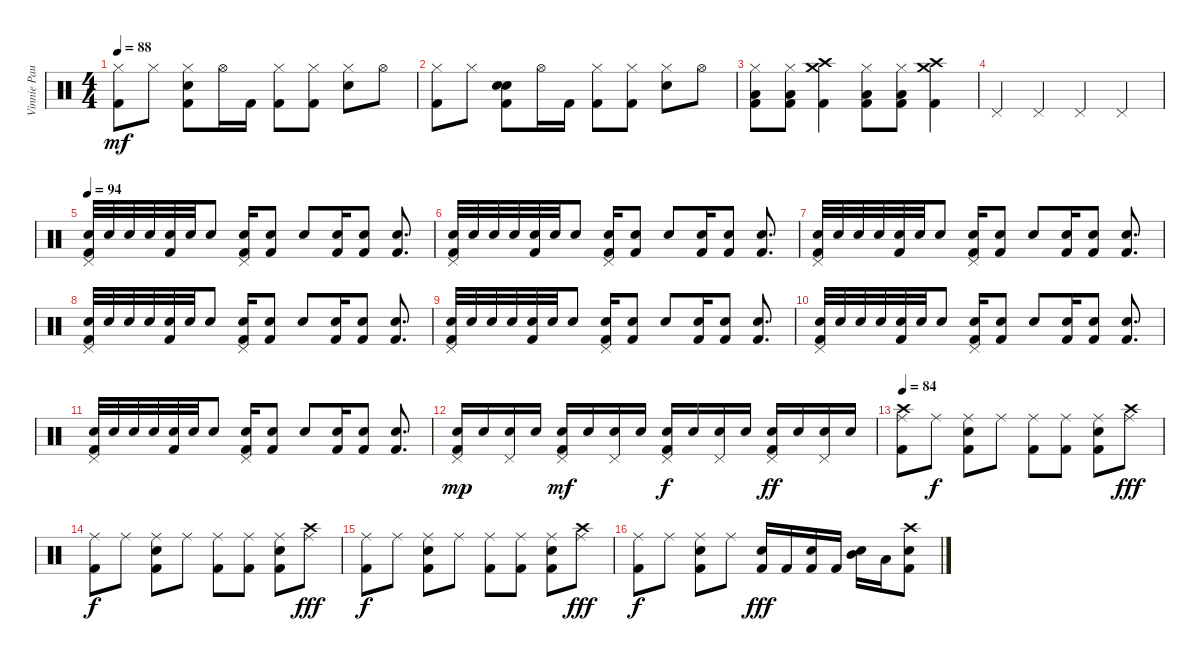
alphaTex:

\track ("Vinnie Paul" "Vinnie Pau") {instrument percussion}
\staff {score}
\articulation defaults
\ts (4 4)
\tempo 88
\clef neutral
\ks c
("Hi-Hat (closed)" "Kick (hit) 2").8{dy mf} "Hi-Hat (closed)".8 ("Hi-Hat (closed)" "Snare (hit) 2" "Kick (hit) 2").8 "Hi-Hat (open)".16 "Kick (hit) 2".16 ("Hi-Hat (closed)" "Kick (hit) 2").8 ("Hi-Hat (closed)" "Kick (hit) 2").8 ("Hi-Hat (closed)" "Snare (hit) 2").8 "Hi-Hat (open)".8 |
("Hi-Hat (closed)" "Kick (hit) 2").8 "Hi-Hat (closed)".8 ("Snare (hit)" "Snare (hit) 2" "Kick (hit) 2").8 "Hi-Hat (open)".16 "Kick (hit) 2".16 ("Hi-Hat (closed)" "Kick (hit) 2").8 ("Hi-Hat (closed)" "Kick (hit) 2").8 ("Hi-Hat (closed)" "Snare (hit) 2").8 "Hi-Hat (open)".8 |
("Hi-Hat (closed)" "Low Floor Tom (hit)" "Kick (hit) 2").8 ("Hi-Hat (closed)" "Low Floor Tom (hit)" "Kick (hit) 2").8 ("Crash high (hit)" "Crash medium (hit)" "Kick (hit) 2").4 ("Hi-Hat (closed)" "Low Floor Tom (hit)" "Kick (hit) 2").8 ("Hi-Hat (closed)" "Low Floor Tom (hit)" "Kick (hit) 2").8 ("Crash high (hit)" "Crash medium (hit)" "Kick (hit) 2").4 |
"Pedal Hi-Hat (hit)".4 "Pedal Hi-Hat (hit)".4 "Pedal Hi-Hat (hit)".4 "Pedal Hi-Hat (hit)".4 |
\tempo 94
("Pedal Hi-Hat (hit)" "Snare (hit) 2" "Kick (hit) 2").32 "Snare (hit) 2".32 "Snare (hit) 2".32 "Snare (hit) 2".32 ("Snare (hit) 2" "Kick (hit) 2").32 "Snare (hit) 2".32 "Snare (hit) 2".8 ("Pedal Hi-Hat (hit)" "Snare (hit) 2" "Kick (hit) 2").16 ("Snare (hit) 2" "Kick (hit) 2").8 "Snare (hit) 2".8 ("Snare (hit) 2" "Kick (hit) 2").16 ("Snare (hit) 2" "Kick (hit) 2").8 ("Snare (hit) 2" "Kick (hit) 2").8{d} |
("Pedal Hi-Hat (hit)" "Snare (hit) 2" "Kick (hit) 2").32 "Snare (hit) 2".32 "Snare (hit) 2".32 "Snare (hit) 2".32 ("Snare (hit) 2" "Kick (hit) 2").32 "Snare (hit) 2".32 "Snare (hit) 2".8 ("Pedal Hi-Hat (hit)" "Snare (hit) 2" "Kick (hit) 2").16 ("Snare (hit) 2" "Kick (hit) 2").8 "Snare (hit) 2".8 ("Snare (hit) 2" "Kick (hit) 2").16 ("Snare (hit) 2" "Kick (hit) 2").8 ("Snare (hit) 2" "Kick (hit) 2").8{d} |
("Pedal Hi-Hat (hit)" "Snare (hit) 2" "Kick (hit) 2").32 "Snare (hit) 2".32 "Snare (hit) 2".32 "Snare (hit) 2".32 ("Snare (hit) 2" "Kick (hit) 2").32 "Snare (hit) 2".32 "Snare (hit) 2".8 ("Pedal Hi-Hat (hit)" "Snare (hit) 2" "Kick (hit) 2").16 ("Snare (hit) 2" "Kick (hit) 2").8 "Snare (hit) 2".8 ("Snare (hit) 2" "Kick (hit) 2").16 ("Snare (hit) 2" "Kick (hit) 2").8 ("Snare (hit) 2" "Kick (hit) 2").8{d} |
("Pedal Hi-Hat (hit)" "Snare (hit) 2" "Kick (hit) 2").32 "Snare (hit) 2".32 "Snare (hit) 2".32 "Snare (hit) 2".32 ("Snare (hit) 2" "Kick (hit) 2").32 "Snare (hit) 2".32 "Snare (hit) 2".8 ("Pedal Hi-Hat (hit)" "Snare (hit) 2" "Kick (hit) 2").16 ("Snare (hit) 2" "Kick (hit) 2").8 "Snare (hit) 2".8 ("Snare (hit) 2" "Kick (hit) 2").16 ("Snare (hit) 2" "Kick (hit) 2").8 ("Snare (hit) 2" "Kick (hit) 2").8{d} |
("Pedal Hi-Hat (hit)" "Snare (hit) 2" "Kick (hit) 2").32 "Snare (hit) 2".32 "Snare (hit) 2".32 "Snare (hit) 2".32 ("Snare (hit) 2" "Kick (hit) 2").32 "Snare (hit) 2".32 "Snare (hit) 2".8 ("Pedal Hi-Hat (hit)" "Snare (hit) 2" "Kick (hit) 2").16 ("Snare (hit) 2" "Kick (hit) 2").8 "Snare (hit) 2".8 ("Snare (hit) 2" "Kick (hit) 2").16 ("Snare (hit) 2" "Kick (hit) 2").8 ("Snare (hit) 2" "Kick (hit) 2").8{d} |
("Pedal Hi-Hat (hit)" "Snare (hit) 2" "Kick (hit) 2").32 "Snare (hit) 2".32 "Snare (hit) 2".32 "Snare (hit) 2".32 ("Snare (hit) 2" "Kick (hit) 2").32 "Snare (hit) 2".32 "Snare (hit) 2".8 ("Pedal Hi-Hat (hit)" "Snare (hit) 2" "Kick (hit) 2").16 ("Snare (hit) 2" "Kick (hit) 2").8 "Snare (hit) 2".8 ("Snare (hit) 2" "Kick (hit) 2").16 ("Snare (hit) 2" "Kick (hit) 2").8 ("Snare (hit) 2" "Kick (hit) 2").8{d} |
("Pedal Hi-Hat (hit)" "Snare (hit) 2" "Kick (hit) 2").32 "Snare (hit) 2".32 "Snare (hit) 2".32 "Snare (hit) 2".32 ("Snare (hit) 2" "Kick (hit) 2").32 "Snare (hit) 2".32 "Snare (hit) 2".8 ("Pedal Hi-Hat (hit)" "Snare (hit) 2" "Kick (hit) 2").16 ("Snare (hit) 2" "Kick (hit) 2").8 "Snare (hit) 2".8 ("Snare (hit) 2" "Kick (hit) 2").16 ("Snare (hit) 2" "Kick (hit) 2").8 ("Snare (hit) 2" "Kick (hit) 2").8{d} |
("Pedal Hi-Hat (hit)" "Snare (hit) 2" "Kick (hit) 2").16{dy mp} "Snare (hit) 2".16 ("Pedal Hi-Hat (hit)" "Snare (hit) 2").16 "Snare (hit) 2".16 ("Pedal Hi-Hat (hit)" "Snare (hit) 2" "Kick (hit) 2").16{dy mf} "Snare (hit) 2".16 ("Pedal Hi-Hat (hit)" "Snare (hit) 2").16 "Snare (hit) 2".16 ("Pedal Hi-Hat (hit)" "Snare (hit) 2" "Kick (hit) 2").16{dy f} "Snare (hit) 2".16 ("Pedal Hi-Hat (hit)" "Snare (hit) 2").16 "Snare (hit) 2".16 ("Pedal Hi-Hat (hit)" "Snare (hit) 2" "Kick (hit) 2").16{dy ff} "Snare (hit) 2".16 ("Pedal Hi-Hat (hit)" "Snare (hit) 2").16 "Snare (hit) 2".16 |
\tempo 84
("Crash high (hit)" "Ride (middle)" "Kick (hit) 2").8 "Ride (middle)".8{dy f} ("Ride (middle)" "Snare (hit) 2" "Kick (hit) 2").8 "Ride (middle)".8 ("Ride (middle)" "Kick (hit) 2").8 ("Ride (middle)" "Kick (hit) 2").8 ("Ride (middle)" "Snare (hit) 2" "Kick (hit) 2").8 ("Crash high (hit)" "Ride (middle)").8{dy fff} |
("Ride (middle)" "Kick (hit) 2").8{dy f} "Ride (middle)".8 ("Ride (middle)" "Snare (hit) 2" "Kick (hit) 2").8 "Ride (middle)".8 ("Ride (middle)" "Kick (hit) 2").8 ("Ride (middle)" "Kick (hit) 2").8 ("Ride (middle)" "Snare (hit) 2" "Kick (hit) 2").8 ("Crash high (hit)" "Ride (middle)").8{dy fff} |
("Ride (middle)" "Kick (hit) 2").8{dy f} "Ride (middle)".8 ("Ride (middle)" "Snare (hit) 2" "Kick (hit) 2").8 "Ride (middle)".8 ("Ride (middle)" "Kick (hit) 2").8 ("Ride (middle)" "Kick (hit) 2").8 ("Ride (middle)" "Snare (hit) 2" "Kick (hit) 2").8 ("Crash high (hit)" "Ride (middle)").8{dy fff} |
("Ride (middle)" "Kick (hit) 2").8{dy f} "Ride (middle)".8 ("Ride (middle)" "Snare (hit) 2" "Kick (hit) 2").8 "Ride (middle)".8 ("Snare (hit) 2" "Kick (hit) 2").16{dy fff} "Kick (hit) 2".16 ("Snare (hit) 2" "Kick (hit) 2").16 "Kick (hit) 2".16 ("Mid Tom (hit)" "Snare (hit) 2").16 "Low Tom (hit)".16 ("Crash high (hit)" "Snare (hit) 2" "Kick (hit) 2").8
